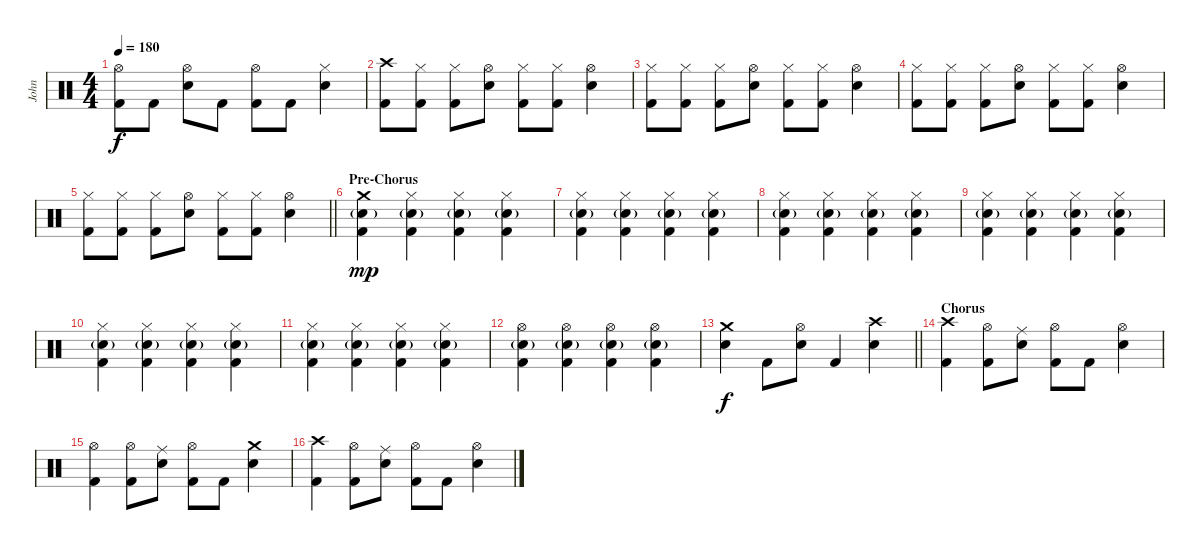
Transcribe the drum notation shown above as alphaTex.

\track ("John" "John") {instrument percussion}
\staff {score}
\articulation defaults
\ts (4 4)
\tempo 180
\clef neutral
\ks c
("Hi-Hat (open)" "Kick (hit) 2").8{dy f} "Kick (hit) 2".8 ("Hi-Hat (open)" "Snare (hit) 2").8 "Kick (hit) 2".8 ("Hi-Hat (open)" "Kick (hit) 2").8 "Kick (hit) 2".8 ("Hi-Hat (closed)" "Snare (hit) 2").4 |
("Crash high (hit)" "Kick (hit) 2").8 ("Hi-Hat (closed)" "Kick (hit) 2").8 ("Hi-Hat (closed)" "Kick (hit) 2").8 ("Hi-Hat (open)" "Snare (hit) 2").8 ("Hi-Hat (closed)" "Kick (hit) 2").8 ("Hi-Hat (closed)" "Kick (hit) 2").8 ("Hi-Hat (open)" "Snare (hit) 2").4 |
("Hi-Hat (closed)" "Kick (hit) 2").8 ("Hi-Hat (closed)" "Kick (hit) 2").8 ("Hi-Hat (closed)" "Kick (hit) 2").8 ("Hi-Hat (open)" "Snare (hit) 2").8 ("Hi-Hat (closed)" "Kick (hit) 2").8 ("Hi-Hat (closed)" "Kick (hit) 2").8 ("Hi-Hat (open)" "Snare (hit) 2").4 |
("Hi-Hat (closed)" "Kick (hit) 2").8 ("Hi-Hat (closed)" "Kick (hit) 2").8 ("Hi-Hat (closed)" "Kick (hit) 2").8 ("Hi-Hat (open)" "Snare (hit) 2").8 ("Hi-Hat (closed)" "Kick (hit) 2").8 ("Hi-Hat (closed)" "Kick (hit) 2").8 ("Hi-Hat (open)" "Snare (hit) 2").4 |
\barLineRight lightlight
("Hi-Hat (closed)" "Kick (hit) 2").8 ("Hi-Hat (closed)" "Kick (hit) 2").8 ("Hi-Hat (closed)" "Kick (hit) 2").8 ("Hi-Hat (open)" "Snare (hit) 2").8 ("Hi-Hat (closed)" "Kick (hit) 2").8 ("Hi-Hat (closed)" "Kick (hit) 2").8 ("Hi-Hat (open)" "Snare (hit) 2").4 |
\section ("" "Pre-Chorus")
("Crash medium (hit)" "Kick (hit) 2" "Snare (hit) 2"{g}).4{dy mp} ("Hi-Hat (closed)" "Kick (hit) 2" "Snare (hit) 2"{g}).4 ("Hi-Hat (closed)" "Kick (hit) 2" "Snare (hit) 2"{g}).4 ("Hi-Hat (closed)" "Kick (hit) 2" "Snare (hit) 2"{g}).4 |
("Hi-Hat (closed)" "Kick (hit) 2" "Snare (hit) 2"{g}).4 ("Hi-Hat (closed)" "Kick (hit) 2" "Snare (hit) 2"{g}).4 ("Hi-Hat (closed)" "Kick (hit) 2" "Snare (hit) 2"{g}).4 ("Hi-Hat (closed)" "Kick (hit) 2" "Snare (hit) 2"{g}).4 |
("Hi-Hat (closed)" "Kick (hit) 2" "Snare (hit) 2"{g}).4 ("Hi-Hat (closed)" "Kick (hit) 2" "Snare (hit) 2"{g}).4 ("Hi-Hat (closed)" "Kick (hit) 2" "Snare (hit) 2"{g}).4 ("Hi-Hat (closed)" "Kick (hit) 2" "Snare (hit) 2"{g}).4 |
("Hi-Hat (closed)" "Kick (hit) 2" "Snare (hit) 2"{g}).4 ("Hi-Hat (closed)" "Kick (hit) 2" "Snare (hit) 2"{g}).4 ("Hi-Hat (closed)" "Kick (hit) 2" "Snare (hit) 2"{g}).4 ("Hi-Hat (closed)" "Kick (hit) 2" "Snare (hit) 2"{g}).4 |
("Hi-Hat (closed)" "Kick (hit) 2" "Snare (hit) 2"{g}).4 ("Hi-Hat (closed)" "Kick (hit) 2" "Snare (hit) 2"{g}).4 ("Hi-Hat (closed)" "Kick (hit) 2" "Snare (hit) 2"{g}).4 ("Hi-Hat (closed)" "Kick (hit) 2" "Snare (hit) 2"{g}).4 |
("Hi-Hat (closed)" "Kick (hit) 2" "Snare (hit) 2"{g}).4 ("Hi-Hat (closed)" "Kick (hit) 2" "Snare (hit) 2"{g}).4 ("Hi-Hat (closed)" "Kick (hit) 2" "Snare (hit) 2"{g}).4 ("Hi-Hat (closed)" "Kick (hit) 2" "Snare (hit) 2"{g}).4 |
("Hi-Hat (open)" "Kick (hit) 2" "Snare (hit) 2"{g}).4 ("Hi-Hat (open)" "Kick (hit) 2" "Snare (hit) 2"{g}).4 ("Hi-Hat (open)" "Kick (hit) 2" "Snare (hit) 2"{g}).4 ("Hi-Hat (open)" "Kick (hit) 2" "Snare (hit) 2"{g}).4 |
\barLineRight lightlight
("Crash medium (hit)" "Snare (hit) 2").4{dy f} "Kick (hit) 2".8 ("Hi-Hat (open)" "Snare (hit) 2").8 "Kick (hit) 2".4 ("Crash high (hit)" "Snare (hit) 2").4 |
\section ("" "Chorus")
("Crash high (hit)" "Kick (hit) 2").4 ("Hi-Hat (open)" "Kick (hit) 2").8 ("Ride (middle)" "Snare (hit) 2").8 ("Hi-Hat (open)" "Kick (hit) 2").8 "Kick (hit) 2".8 ("Hi-Hat (open)" "Snare (hit) 2").4 |
("Hi-Hat (open)" "Kick (hit) 2").4 ("Hi-Hat (open)" "Kick (hit) 2").8 ("Ride (middle)" "Snare (hit) 2").8 ("Hi-Hat (open)" "Kick (hit) 2").8 "Kick (hit) 2".8 ("Crash medium (hit)" "Snare (hit) 2").4 |
("Crash high (hit)" "Kick (hit) 2").4 ("Hi-Hat (open)" "Kick (hit) 2").8 ("Ride (middle)" "Snare (hit) 2").8 ("Hi-Hat (open)" "Kick (hit) 2").8 "Kick (hit) 2".8 ("Hi-Hat (open)" "Snare (hit) 2").4
